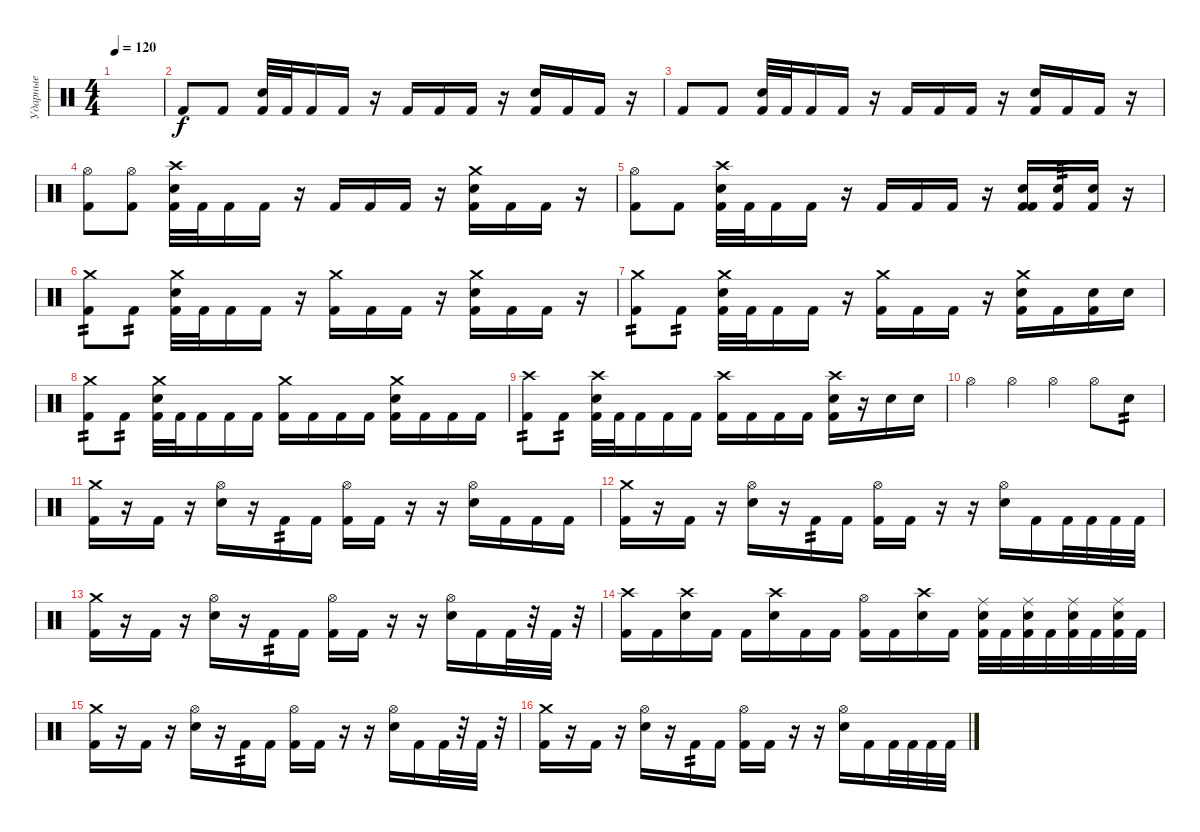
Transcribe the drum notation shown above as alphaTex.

\track ("Ударные" "Ударные") {instrument percussion}
\staff {score}
\articulation defaults
\ts (4 4)
\tempo 120
\clef neutral
\ks c
|
"Kick (hit) 2".8 "Kick (hit) 2".8 ("Snare (hit) 2" "Kick (hit) 2").32 "Kick (hit) 2".32 "Kick (hit) 2".16 "Kick (hit) 2".16 r.16 "Kick (hit) 2".16 "Kick (hit) 2".16 "Kick (hit) 2".16 r.16 ("Snare (hit) 2" "Kick (hit) 2").16 "Kick (hit) 2".16 "Kick (hit) 2".16 r.16 |
"Kick (hit) 2".8 "Kick (hit) 2".8 ("Snare (hit) 2" "Kick (hit) 2").32 "Kick (hit) 2".32 "Kick (hit) 2".16 "Kick (hit) 2".16 r.16 "Kick (hit) 2".16 "Kick (hit) 2".16 "Kick (hit) 2".16 r.16 ("Snare (hit) 2" "Kick (hit) 2").16 "Kick (hit) 2".16 "Kick (hit) 2".16 r.16 |
("Hi-Hat (open)" "Kick (hit) 2").8 ("Hi-Hat (open)" "Kick (hit) 2").8 ("Crash high (hit)" "Snare (hit) 2" "Kick (hit) 2").32 "Kick (hit) 2".32 "Kick (hit) 2".16 "Kick (hit) 2".16 r.16 "Kick (hit) 2".16 "Kick (hit) 2".16 "Kick (hit) 2".16 r.16 ("Crash medium (hit)" "Snare (hit) 2" "Kick (hit) 2").16 "Kick (hit) 2".16 "Kick (hit) 2".16 r.16 |
("Hi-Hat (open)" "Kick (hit) 2").8 "Kick (hit) 2".8 ("Crash high (hit)" "Snare (hit) 2" "Kick (hit) 2").32 "Kick (hit) 2".32 "Kick (hit) 2".16 "Kick (hit) 2".16 r.16 "Kick (hit) 2".16 "Kick (hit) 2".16 "Kick (hit) 2".16 r.16 ("Kick (hit) 2" "Snare (hit) 2" "Kick (hit) 2").16 ("Kick (hit) 2" "Snare (hit) 2").16{tp 3} ("Kick (hit) 2" "Snare (hit) 2").16 r.16 |
("Crash medium (hit)" "Kick (hit) 2").8{tp 2} "Kick (hit) 2".8{tp 2} ("Crash medium (hit)" "Snare (hit) 2" "Kick (hit) 2").32 "Kick (hit) 2".32 "Kick (hit) 2".16 "Kick (hit) 2".16 r.16 ("Crash medium (hit)" "Kick (hit) 2").16 "Kick (hit) 2".16 "Kick (hit) 2".16 r.16 ("Crash medium (hit)" "Snare (hit) 2" "Kick (hit) 2").16 "Kick (hit) 2".16 "Kick (hit) 2".16 r.16 |
("Crash medium (hit)" "Kick (hit) 2").8{tp 2} "Kick (hit) 2".8{tp 2} ("Crash medium (hit)" "Snare (hit) 2" "Kick (hit) 2").32 "Kick (hit) 2".32 "Kick (hit) 2".16 "Kick (hit) 2".16 r.16 ("Crash medium (hit)" "Kick (hit) 2").16 "Kick (hit) 2".16 "Kick (hit) 2".16 r.16 ("Crash medium (hit)" "Snare (hit) 2" "Kick (hit) 2").16 "Kick (hit) 2".16 ("Snare (hit) 2" "Kick (hit) 2").16 "Snare (hit) 2".16 |
("Crash medium (hit)" "Kick (hit) 2").8{tp 2} "Kick (hit) 2".8{tp 2} ("Crash medium (hit)" "Snare (hit) 2" "Kick (hit) 2").32 "Kick (hit) 2".32 "Kick (hit) 2".16 "Kick (hit) 2".16 "Kick (hit) 2".16 ("Crash medium (hit)" "Kick (hit) 2").16 "Kick (hit) 2".16 "Kick (hit) 2".16 "Kick (hit) 2".16 ("Crash medium (hit)" "Snare (hit) 2" "Kick (hit) 2").16 "Kick (hit) 2".16 "Kick (hit) 2".16 "Kick (hit) 2".16 |
("Crash high (hit)" "Kick (hit) 2").8{tp 2} "Kick (hit) 2".8{tp 2} ("Crash high (hit)" "Snare (hit) 2" "Kick (hit) 2").32 "Kick (hit) 2".32 "Kick (hit) 2".16 "Kick (hit) 2".16 "Kick (hit) 2".16 ("Crash high (hit)" "Kick (hit) 2").16 "Kick (hit) 2".16 "Kick (hit) 2".16 "Kick (hit) 2".16 ("Crash high (hit)" "Snare (hit) 2" "Kick (hit) 2").16 r.16 "Snare (hit) 2".16 "Snare (hit) 2".16 |
"Hi-Hat (open)".4 "Hi-Hat (open)".4 "Hi-Hat (open)".4 "Hi-Hat (open)".8 "Snare (hit) 2".8{tp 2} |
("Crash medium (hit)" "Kick (hit) 2").16 r.16 "Kick (hit) 2".16 r.16 ("Hi-Hat (open)" "Snare (hit) 2").16 r.16 "Kick (hit) 2".16{tp 2} "Kick (hit) 2".16 ("Hi-Hat (open)" "Kick (hit) 2").16 "Kick (hit) 2".16 r.16 r.16 ("Hi-Hat (open)" "Snare (hit) 2").16 "Kick (hit) 2".16 "Kick (hit) 2".16 "Kick (hit) 2".16 |
("Crash medium (hit)" "Kick (hit) 2").16 r.16 "Kick (hit) 2".16 r.16 ("Hi-Hat (open)" "Snare (hit) 2").16 r.16 "Kick (hit) 2".16{tp 2} "Kick (hit) 2".16 ("Hi-Hat (open)" "Kick (hit) 2").16 "Kick (hit) 2".16 r.16 r.16 ("Hi-Hat (open)" "Snare (hit) 2").16 "Kick (hit) 2".16 "Kick (hit) 2".32 "Kick (hit) 2".32 "Kick (hit) 2".32 "Kick (hit) 2".32 |
("Crash medium (hit)" "Kick (hit) 2").16 r.16 "Kick (hit) 2".16 r.16 ("Hi-Hat (open)" "Snare (hit) 2").16 r.16 "Kick (hit) 2".16{tp 2} "Kick (hit) 2".16 ("Hi-Hat (open)" "Kick (hit) 2").16 "Kick (hit) 2".16 r.16 r.16 ("Hi-Hat (open)" "Snare (hit) 2").16 "Kick (hit) 2".16 "Kick (hit) 2".32 r.32 "Kick (hit) 2".32 r.32 |
("Crash high (hit)" "Kick (hit) 2").16 "Kick (hit) 2".16 ("Crash high (hit)" "Snare (hit) 2").16 "Kick (hit) 2".16 "Kick (hit) 2".16 ("Crash high (hit)" "Snare (hit) 2").16 "Kick (hit) 2".16 "Kick (hit) 2".16 ("Hi-Hat (open)" "Kick (hit) 2").16 "Kick (hit) 2".16 ("Crash high (hit)" "Snare (hit) 2").16 "Kick (hit) 2".16 ("Ride (middle)" "Snare (hit) 2" "Kick (hit) 2").32 "Kick (hit) 2".32 ("Ride (middle)" "Snare (hit) 2" "Kick (hit) 2").32 "Kick (hit) 2".32 ("Ride (middle)" "Snare (hit) 2" "Kick (hit) 2").32 "Kick (hit) 2".32 ("Ride (middle)" "Snare (hit) 2" "Kick (hit) 2").32 "Kick (hit) 2".32 |
("Crash medium (hit)" "Kick (hit) 2").16 r.16 "Kick (hit) 2".16 r.16 ("Hi-Hat (open)" "Snare (hit) 2").16 r.16 "Kick (hit) 2".16{tp 2} "Kick (hit) 2".16 ("Hi-Hat (open)" "Kick (hit) 2").16 "Kick (hit) 2".16 r.16 r.16 ("Hi-Hat (open)" "Snare (hit) 2").16 "Kick (hit) 2".16 "Kick (hit) 2".32 r.32 "Kick (hit) 2".32 r.32 |
("Crash medium (hit)" "Kick (hit) 2").16 r.16 "Kick (hit) 2".16 r.16 ("Hi-Hat (open)" "Snare (hit) 2").16 r.16 "Kick (hit) 2".16{tp 2} "Kick (hit) 2".16 ("Hi-Hat (open)" "Kick (hit) 2").16 "Kick (hit) 2".16 r.16 r.16 ("Hi-Hat (open)" "Snare (hit) 2").16 "Kick (hit) 2".16 "Kick (hit) 2".32 "Kick (hit) 2".32 "Kick (hit) 2".32 "Kick (hit) 2".32
